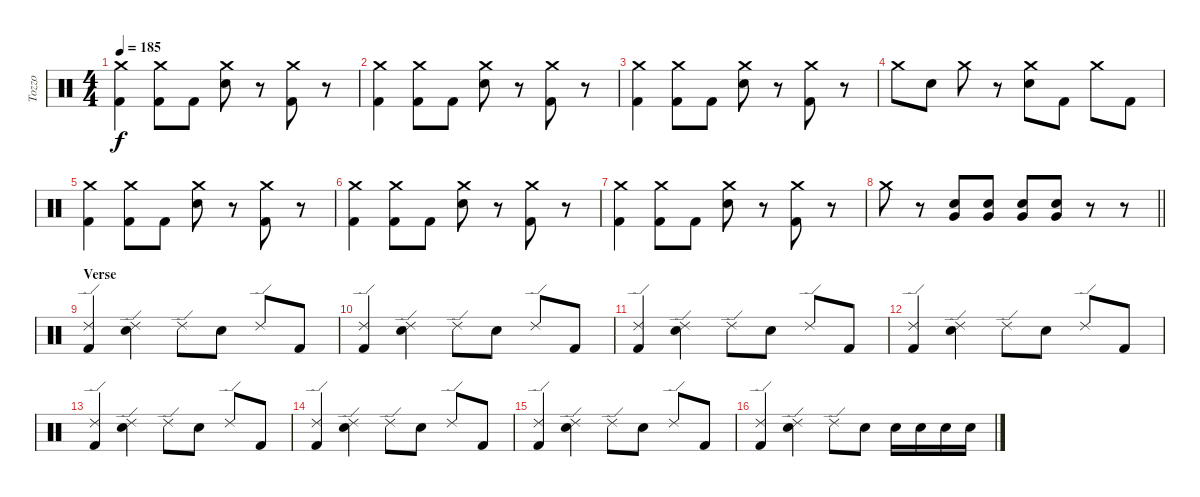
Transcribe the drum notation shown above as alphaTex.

\track ("Tozzo" "Tozzo") {instrument percussion}
\staff {score}
\articulation defaults
\ts (4 4)
\tempo 185
\clef neutral
\ks c
("Crash medium (hit)" "Kick (hit) 2").4{dy f} ("Crash medium (hit)" "Kick (hit) 2").8 "Kick (hit) 2".8 ("Crash medium (hit)" "Electric Snare (hit)").8 r.8 ("Crash medium (hit)" "Kick (hit) 2").8 r.8 |
("Crash medium (hit)" "Kick (hit) 2").4 ("Crash medium (hit)" "Kick (hit) 2").8 "Kick (hit) 2".8 ("Crash medium (hit)" "Electric Snare (hit)").8 r.8 ("Crash medium (hit)" "Kick (hit) 2").8 r.8 |
("Crash medium (hit)" "Kick (hit) 2").4 ("Crash medium (hit)" "Kick (hit) 2").8 "Kick (hit) 2".8 ("Crash medium (hit)" "Electric Snare (hit)").8 r.8 ("Crash medium (hit)" "Kick (hit) 2").8 r.8 |
"Crash medium (hit)".8 "Electric Snare (hit)".8 "Crash medium (hit)".8 r.8 ("Crash medium (hit)" "Electric Snare (hit)").8 "Kick (hit) 2".8 "Crash medium (hit)".8 "Kick (hit) 2".8 |
("Crash medium (hit)" "Kick (hit) 2").4 ("Crash medium (hit)" "Kick (hit) 2").8 "Kick (hit) 2".8 ("Crash medium (hit)" "Electric Snare (hit)").8 r.8 ("Crash medium (hit)" "Kick (hit) 2").8 r.8 |
("Crash medium (hit)" "Kick (hit) 2").4 ("Crash medium (hit)" "Kick (hit) 2").8 "Kick (hit) 2".8 ("Crash medium (hit)" "Electric Snare (hit)").8 r.8 ("Crash medium (hit)" "Kick (hit) 2").8 r.8 |
("Crash medium (hit)" "Kick (hit) 2").4 ("Crash medium (hit)" "Kick (hit) 2").8 "Kick (hit) 2".8 ("Crash medium (hit)" "Electric Snare (hit)").8 r.8 ("Crash medium (hit)" "Kick (hit) 2").8 r.8 |
\barLineRight lightlight "Crash medium (hit)".8
r.8 ("Electric Snare (hit)" "Very Low Tom (hit)").8 ("Electric Snare (hit)" "Very Low Tom (hit)").8 ("Electric Snare (hit)" "Very Low Tom (hit)").8 ("Electric Snare (hit)" "Very Low Tom (hit)").8 r.8 r.8 |
\section ("" "Verse")
("Ride (edge) 2" "Kick (hit) 2").4 ("Ride (edge) 2" "Electric Snare (hit)").4 "Ride (edge) 2".8 "Electric Snare (hit)".8 "Ride (edge) 2".8 "Kick (hit) 2".8 |
("Ride (edge) 2" "Kick (hit) 2").4 ("Ride (edge) 2" "Electric Snare (hit)").4 "Ride (edge) 2".8 "Electric Snare (hit)".8 "Ride (edge) 2".8 "Kick (hit) 2".8 |
("Ride (edge) 2" "Kick (hit) 2").4 ("Ride (edge) 2" "Electric Snare (hit)").4 "Ride (edge) 2".8 "Electric Snare (hit)".8 "Ride (edge) 2".8 "Kick (hit) 2".8 |
("Ride (edge) 2" "Kick (hit) 2").4 ("Ride (edge) 2" "Electric Snare (hit)").4 "Ride (edge) 2".8 "Electric Snare (hit)".8 "Ride (edge) 2".8 "Kick (hit) 2".8 |
("Ride (edge) 2" "Kick (hit) 2").4 ("Ride (edge) 2" "Electric Snare (hit)").4 "Ride (edge) 2".8 "Electric Snare (hit)".8 "Ride (edge) 2".8 "Kick (hit) 2".8 |
("Ride (edge) 2" "Kick (hit) 2").4 ("Ride (edge) 2" "Electric Snare (hit)").4 "Ride (edge) 2".8 "Electric Snare (hit)".8 "Ride (edge) 2".8 "Kick (hit) 2".8 |
("Ride (edge) 2" "Kick (hit) 2").4 ("Ride (edge) 2" "Electric Snare (hit)").4 "Ride (edge) 2".8 "Electric Snare (hit)".8 "Ride (edge) 2".8 "Kick (hit) 2".8 |
("Ride (edge) 2" "Kick (hit) 2").4 ("Ride (edge) 2" "Electric Snare (hit)").4 "Ride (edge) 2".8 "Electric Snare (hit)".8 "Electric Snare (hit)".16 "Electric Snare (hit)".16 "Electric Snare (hit)".16 "Electric Snare (hit)".16
